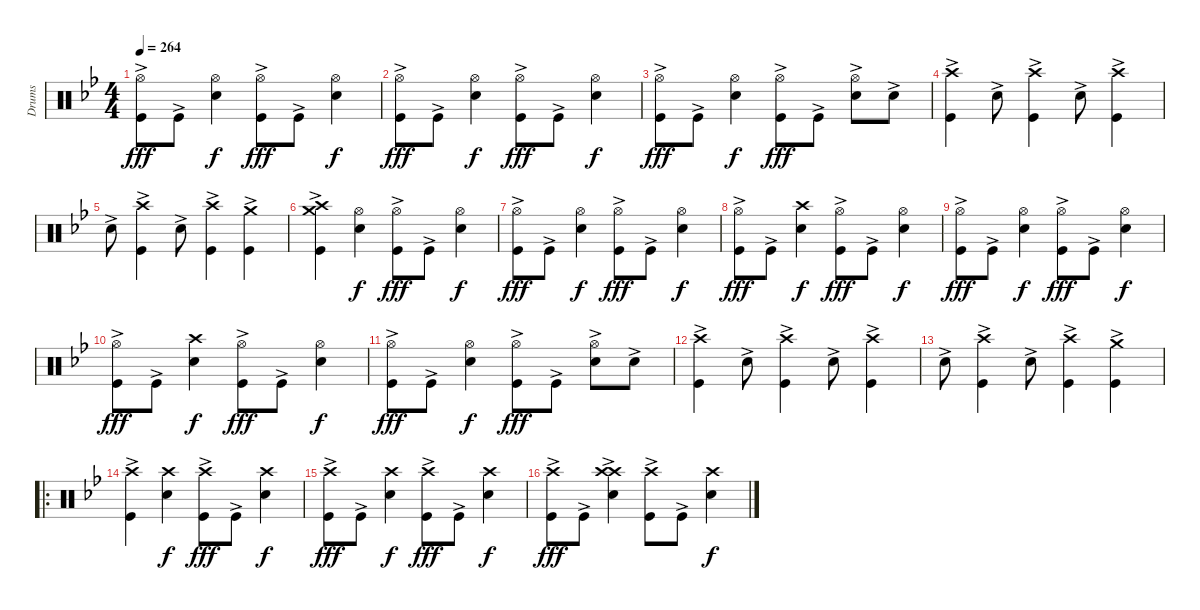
\track ("Drums" "Drums") {instrument percussion}
\staff {score}
\articulation defaults
\ts (4 4)
\tempo 264
\clef neutral
\ks gminor
("Hi-Hat (open)" "Kick (hit)"{ac}).8{dy fff} "Kick (hit)"{ac}.8 ("Hi-Hat (open)" "Snare (hit) 2").4{dy f} ("Hi-Hat (open)" "Kick (hit)"{ac}).8{dy fff} "Kick (hit)"{ac}.8 ("Hi-Hat (open)" "Snare (hit) 2").4{dy f} |
("Hi-Hat (open)" "Kick (hit)"{ac}).8{dy fff} "Kick (hit)"{ac}.8 ("Hi-Hat (open)" "Snare (hit) 2").4{dy f} ("Hi-Hat (open)" "Kick (hit)"{ac}).8{dy fff} "Kick (hit)"{ac}.8 ("Hi-Hat (open)" "Snare (hit) 2").4{dy f} |
("Hi-Hat (open)" "Kick (hit)"{ac}).8{dy fff} "Kick (hit)"{ac}.8 ("Hi-Hat (open)" "Snare (hit) 2").4{dy f} ("Hi-Hat (open)" "Kick (hit)"{ac}).8{dy fff} "Kick (hit)"{ac}.8 ("Hi-Hat (open)" "Snare (hit) 2"{ac}).8 "Snare (hit) 2"{ac}.8 |
("Crash high (hit)" "Kick (hit)"{ac}).4 "Snare (hit) 2"{ac}.8 ("Crash high (hit)" "Kick (hit)"{ac}).4 "Snare (hit) 2"{ac}.8 ("Crash high (hit)" "Kick (hit)"{ac}).4 |
"Snare (hit) 2"{ac}.8 ("Crash high (hit)" "Kick (hit)"{ac}).4 "Snare (hit) 2"{ac}.8 ("Crash high (hit)" "Kick (hit)"{ac}).4 ("Crash medium (hit)" "Kick (hit)"{ac}).4 |
("Crash high (hit)" "Crash medium (hit)" "Kick (hit)"{ac}).4 ("Hi-Hat (open)" "Snare (hit) 2").4{dy f} ("Hi-Hat (open)" "Kick (hit)"{ac}).8{dy fff} "Kick (hit)"{ac}.8 ("Hi-Hat (open)" "Snare (hit) 2").4{dy f} |
("Hi-Hat (open)" "Kick (hit)"{ac}).8{dy fff} "Kick (hit)"{ac}.8 ("Hi-Hat (open)" "Snare (hit) 2").4{dy f} ("Hi-Hat (open)" "Kick (hit)"{ac}).8{dy fff} "Kick (hit)"{ac}.8 ("Hi-Hat (open)" "Snare (hit) 2").4{dy f} |
("Hi-Hat (open)" "Kick (hit)"{ac}).8{dy fff} "Kick (hit)"{ac}.8 ("Crash high (hit)" "Snare (hit) 2").4{dy f} ("Hi-Hat (open)" "Kick (hit)"{ac}).8{dy fff} "Kick (hit)"{ac}.8 ("Hi-Hat (open)" "Snare (hit) 2").4{dy f} |
("Hi-Hat (open)" "Kick (hit)"{ac}).8{dy fff} "Kick (hit)"{ac}.8 ("Hi-Hat (open)" "Snare (hit) 2").4{dy f} ("Hi-Hat (open)" "Kick (hit)"{ac}).8{dy fff} "Kick (hit)"{ac}.8 ("Hi-Hat (open)" "Snare (hit) 2").4{dy f} |
("Hi-Hat (open)" "Kick (hit)"{ac}).8{dy fff} "Kick (hit)"{ac}.8 ("Crash high (hit)" "Snare (hit) 2").4{dy f} ("Hi-Hat (open)" "Kick (hit)"{ac}).8{dy fff} "Kick (hit)"{ac}.8 ("Hi-Hat (open)" "Snare (hit) 2").4{dy f} |
("Hi-Hat (open)" "Kick (hit)"{ac}).8{dy fff} "Kick (hit)"{ac}.8 ("Hi-Hat (open)" "Snare (hit) 2").4{dy f} ("Hi-Hat (open)" "Kick (hit)"{ac}).8{dy fff} "Kick (hit)"{ac}.8 ("Hi-Hat (open)" "Snare (hit) 2"{ac}).8 "Snare (hit) 2"{ac}.8 |
("Crash high (hit)" "Kick (hit)"{ac}).4 "Snare (hit) 2"{ac}.8 ("Crash high (hit)" "Kick (hit)"{ac}).4 "Snare (hit) 2"{ac}.8 ("Crash high (hit)" "Kick (hit)"{ac}).4 |
"Snare (hit) 2"{ac}.8 ("Crash high (hit)" "Kick (hit)"{ac}).4 "Snare (hit) 2"{ac}.8 ("Crash high (hit)" "Kick (hit)"{ac}).4 ("Crash medium (hit)" "Kick (hit)"{ac}).4 |
\ro
("Crash high (hit)" "Kick (hit)"{ac}).4 ("Crash high (hit)" "Snare (hit) 2").4{dy f} ("Crash high (hit)" "Kick (hit)"{ac}).8{dy fff} "Kick (hit)"{ac}.8 ("Crash high (hit)" "Snare (hit) 2").4{dy f} |
("Crash high (hit)" "Kick (hit)"{ac}).8{dy fff} "Kick (hit)"{ac}.8 ("Crash high (hit)" "Snare (hit) 2").4{dy f} ("Crash high (hit)" "Kick (hit)"{ac}).8{dy fff} "Kick (hit)"{ac}.8 ("Crash high (hit)" "Snare (hit) 2").4{dy f} |
("Crash high (hit)" "Kick (hit)"{ac}).8{dy fff} "Kick (hit)"{ac}.8 ("Crash high (hit)"{ac} "Crash high (hit)" "Snare (hit) 2"{ac}).4 ("Crash high (hit)" "Kick (hit)"{ac}).8 "Kick (hit)"{ac}.8 ("Crash high (hit)" "Snare (hit) 2").4{dy f}
